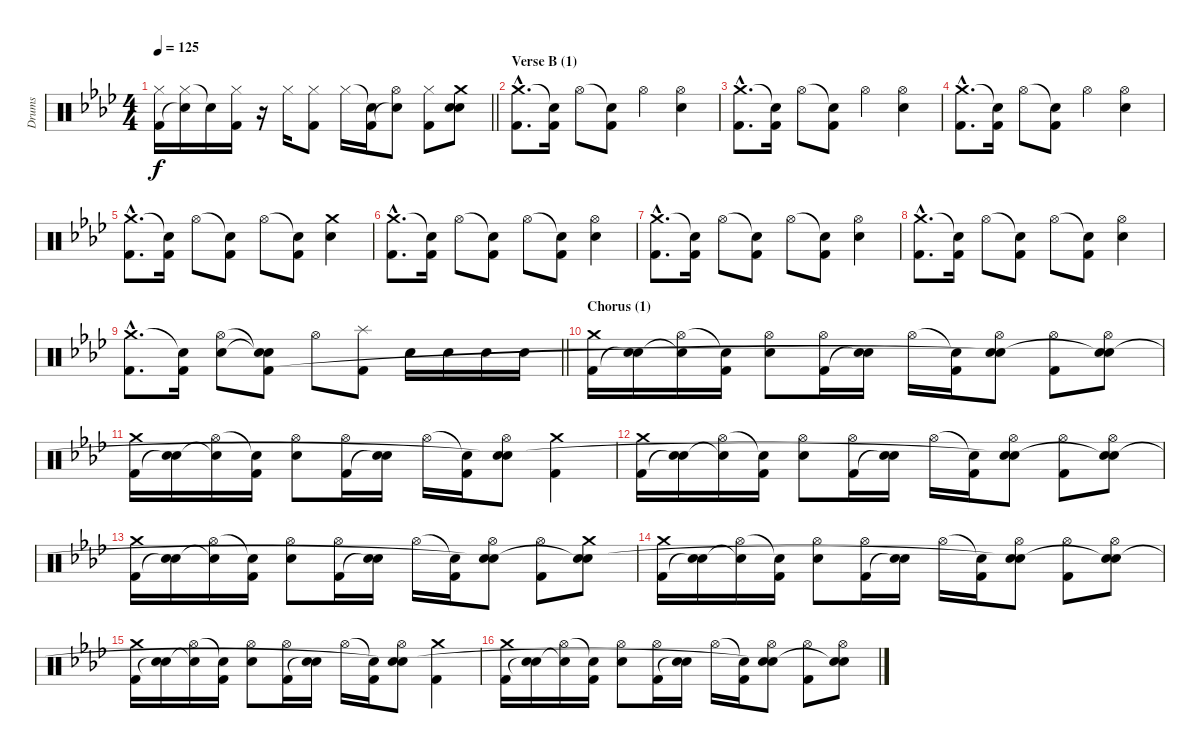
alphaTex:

\track ("Drums" "Drums") {instrument percussion}
\staff {score}
\articulation defaults
\ts (4 4)
\tempo 125
\clef neutral
\barLineRight lightlight
\ks ab
("Hi-Hat (closed)" "Kick (hit) 2").16{dy f} ("Hi-Hat (closed)" "Snare (hit)"{t}).16 "Snare (hit)"{t}.16 ("Hi-Hat (closed)" "Kick (hit) 2").16 r.16 "Hi-Hat (closed)".16 ("Hi-Hat (closed)" "Kick (hit) 2").8 "Hi-Hat (closed)".16 ("Snare (hit)"{t} "Kick (hit) 2").16 ("Hi-Hat (open)" "Snare (hit)"{t}).8 ("Hi-Hat (closed)" "Kick (hit) 2").8 ("Crash medium (hit)" "Electric Snare (hit)" "Snare (hit)").8 |
\section ("" "Verse B (1)")
("Crash medium (hit)"{hac} "Kick (hit) 2"{hac}).8{d} ("Snare (hit)"{t} "Kick (hit) 2").16 "Hi-Hat (open)".8 ("Snare (hit)"{t} "Kick (hit) 2").8 "Hi-Hat (open)".4 ("Hi-Hat (open)" "Electric Snare (hit)").4 |
("Crash medium (hit)"{hac} "Kick (hit) 2"{hac}).8{d} ("Snare (hit)"{t} "Kick (hit) 2").16 "Hi-Hat (open)".8 ("Snare (hit)"{t} "Kick (hit) 2").8 "Hi-Hat (open)".4 ("Hi-Hat (open)" "Electric Snare (hit)").4 |
("Crash medium (hit)"{hac} "Kick (hit) 2"{hac}).8{d} ("Snare (hit)"{t} "Kick (hit) 2").16 "Hi-Hat (open)".8 ("Snare (hit)"{t} "Kick (hit) 2").8 "Hi-Hat (open)".4 ("Hi-Hat (open)" "Electric Snare (hit)").4 |
("Crash medium (hit)"{hac} "Kick (hit) 2"{hac}).8{d} ("Snare (hit)"{t} "Kick (hit) 2").16 "Hi-Hat (open)".8 ("Snare (hit)"{t} "Kick (hit) 2").8 "Hi-Hat (open)".8 ("Snare (hit)"{t} "Kick (hit) 2").8 ("Crash medium (hit)" "Electric Snare (hit)").4 |
("Crash medium (hit)"{hac} "Kick (hit) 2"{hac}).8{d} ("Snare (hit)"{t} "Kick (hit) 2").16 "Hi-Hat (open)".8 ("Snare (hit)"{t} "Kick (hit) 2").8 "Hi-Hat (open)".8 ("Snare (hit)"{t} "Kick (hit) 2").8 ("Hi-Hat (open)" "Electric Snare (hit)").4 |
("Crash medium (hit)"{hac} "Kick (hit) 2"{hac}).8{d} ("Snare (hit)"{t} "Kick (hit) 2").16 "Hi-Hat (open)".8 ("Snare (hit)"{t} "Kick (hit) 2").8 "Hi-Hat (open)".8 ("Snare (hit)"{t} "Kick (hit) 2").8 ("Hi-Hat (open)" "Electric Snare (hit)").4 |
("Crash medium (hit)"{hac} "Kick (hit) 2"{hac}).8{d} ("Snare (hit)"{t} "Kick (hit) 2").16 "Hi-Hat (open)".8 ("Snare (hit)"{t} "Kick (hit) 2").8 "Hi-Hat (open)".8 ("Snare (hit)"{t} "Kick (hit) 2").8 ("Hi-Hat (open)" "Electric Snare (hit)").4 |
\barLineRight lightlight
("Crash medium (hit)"{hac} "Kick (hit) 2"{hac}).8{d} ("Snare (hit)"{t} "Kick (hit) 2").16 ("Hi-Hat (open)" "Electric Snare (hit)").8 ("Snare (hit)"{t} "Snare (hit)"{t} "Kick (hit) 2").8 "Hi-Hat (open)".8 ("Splash (hit)" "Kick (hit) 2").8 "Electric Snare (hit)".16 "Electric Snare (hit)".16 "Electric Snare (hit)".16 "Electric Snare (hit)".16 |
\section ("" "Chorus (1)")
("Crash medium (hit)" "Kick (hit) 2").16 ("Electric Snare (hit)" "Snare (hit)"{t}).16 ("Hi-Hat (open)" "Snare (hit)"{t}).16 ("Snare (hit)"{t} "Kick (hit) 2").16 ("Hi-Hat (open)" "Electric Snare (hit)").8 ("Hi-Hat (open)" "Kick (hit) 2").16 ("Electric Snare (hit)" "Snare (hit)"{t}).16 "Hi-Hat (open)".16 ("Snare (hit)"{t} "Kick (hit) 2").16 ("Hi-Hat (open)" "Electric Snare (hit)" "Snare (hit)"{t}).8 ("Hi-Hat (open)" "Kick (hit) 2").8 ("Hi-Hat (open)" "Electric Snare (hit)" "Snare (hit)"{t}).8 |
("Crash medium (hit)" "Kick (hit) 2").16 ("Electric Snare (hit)" "Snare (hit)"{t}).16 ("Hi-Hat (open)" "Snare (hit)"{t}).16 ("Snare (hit)"{t} "Kick (hit) 2").16 ("Hi-Hat (open)" "Electric Snare (hit)").8 ("Hi-Hat (open)" "Kick (hit) 2").16 ("Electric Snare (hit)" "Snare (hit)"{t}).16 "Hi-Hat (open)".16 ("Snare (hit)"{t} "Kick (hit) 2").16 ("Hi-Hat (open)" "Electric Snare (hit)" "Snare (hit)"{t}).8 ("Crash medium (hit)" "Kick (hit) 2").4 |
("Crash medium (hit)" "Kick (hit) 2").16 ("Electric Snare (hit)" "Snare (hit)"{t}).16 ("Hi-Hat (open)" "Snare (hit)"{t}).16 ("Snare (hit)"{t} "Kick (hit) 2").16 ("Hi-Hat (open)" "Electric Snare (hit)").8 ("Hi-Hat (open)" "Kick (hit) 2").16 ("Electric Snare (hit)" "Snare (hit)"{t}).16 "Hi-Hat (open)".16 ("Snare (hit)"{t} "Kick (hit) 2").16 ("Hi-Hat (open)" "Electric Snare (hit)" "Snare (hit)"{t}).8 ("Hi-Hat (open)" "Kick (hit) 2").8 ("Hi-Hat (open)" "Electric Snare (hit)" "Snare (hit)"{t}).8 |
("Crash medium (hit)" "Kick (hit) 2").16 ("Electric Snare (hit)" "Snare (hit)"{t}).16 ("Hi-Hat (open)" "Snare (hit)"{t}).16 ("Snare (hit)"{t} "Kick (hit) 2").16 ("Hi-Hat (open)" "Electric Snare (hit)").8 ("Hi-Hat (open)" "Kick (hit) 2").16 ("Electric Snare (hit)" "Snare (hit)"{t}).16 "Hi-Hat (open)".16 ("Snare (hit)"{t} "Kick (hit) 2").16 ("Hi-Hat (open)" "Electric Snare (hit)" "Snare (hit)"{t}).8 ("Hi-Hat (open)" "Kick (hit) 2").8 ("Crash medium (hit)" "Electric Snare (hit)" "Snare (hit)"{t}).8 |
("Crash medium (hit)" "Kick (hit) 2").16 ("Electric Snare (hit)" "Snare (hit)"{t}).16 ("Hi-Hat (open)" "Snare (hit)"{t}).16 ("Snare (hit)"{t} "Kick (hit) 2").16 ("Hi-Hat (open)" "Electric Snare (hit)").8 ("Hi-Hat (open)" "Kick (hit) 2").16 ("Electric Snare (hit)" "Snare (hit)"{t}).16 "Hi-Hat (open)".16 ("Snare (hit)"{t} "Kick (hit) 2").16 ("Hi-Hat (open)" "Electric Snare (hit)" "Snare (hit)"{t}).8 ("Hi-Hat (open)" "Kick (hit) 2").8 ("Hi-Hat (open)" "Electric Snare (hit)" "Snare (hit)"{t}).8 |
("Crash medium (hit)" "Kick (hit) 2").16 ("Electric Snare (hit)" "Snare (hit)"{t}).16 ("Hi-Hat (open)" "Snare (hit)"{t}).16 ("Snare (hit)"{t} "Kick (hit) 2").16 ("Hi-Hat (open)" "Electric Snare (hit)").8 ("Hi-Hat (open)" "Kick (hit) 2").16 ("Electric Snare (hit)" "Snare (hit)"{t}).16 "Hi-Hat (open)".16 ("Snare (hit)"{t} "Kick (hit) 2").16 ("Hi-Hat (open)" "Electric Snare (hit)" "Snare (hit)"{t}).8 ("Crash medium (hit)" "Kick (hit) 2").4 |
("Crash medium (hit)" "Kick (hit) 2").16 ("Electric Snare (hit)" "Snare (hit)"{t}).16 ("Hi-Hat (open)" "Snare (hit)"{t}).16 ("Snare (hit)"{t} "Kick (hit) 2").16 ("Hi-Hat (open)" "Electric Snare (hit)").8 ("Hi-Hat (open)" "Kick (hit) 2").16 ("Electric Snare (hit)" "Snare (hit)"{t}).16 "Hi-Hat (open)".16 ("Snare (hit)"{t} "Kick (hit) 2").16 ("Hi-Hat (open)" "Electric Snare (hit)" "Snare (hit)"{t}).8 ("Hi-Hat (open)" "Kick (hit) 2").8 ("Hi-Hat (open)" "Electric Snare (hit)" "Snare (hit)"{t}).8
